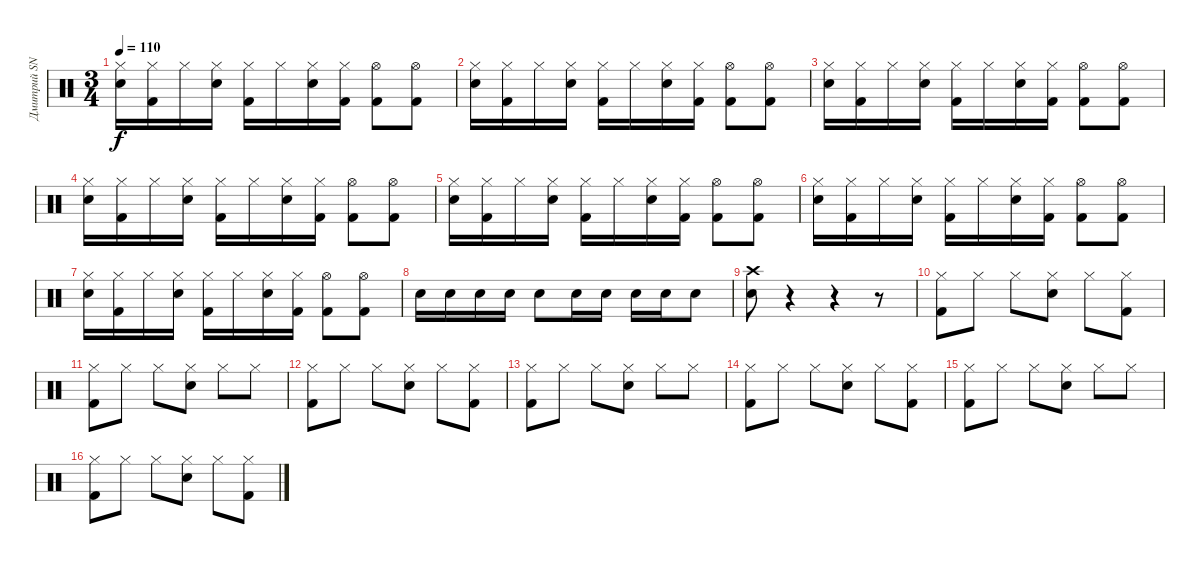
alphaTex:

\track ("Дмитрий SNAKE" "Дмитрий SN") {instrument percussion}
\staff {score}
\articulation defaults
\ts (3 4)
\tempo 110
\clef neutral
\ks c
("Hi-Hat (closed)" "Snare (hit) 2").16{dy f} ("Hi-Hat (closed)" "Kick (hit) 2").16 "Hi-Hat (closed)".16 ("Hi-Hat (closed)" "Snare (hit) 2").16 ("Hi-Hat (closed)" "Kick (hit) 2").16 "Hi-Hat (closed)".16 ("Hi-Hat (closed)" "Snare (hit) 2").16 ("Hi-Hat (closed)" "Kick (hit) 2").16 ("Hi-Hat (open)" "Kick (hit) 2").8 ("Hi-Hat (open)" "Kick (hit) 2").8 |
("Hi-Hat (closed)" "Snare (hit) 2").16 ("Hi-Hat (closed)" "Kick (hit) 2").16 "Hi-Hat (closed)".16 ("Hi-Hat (closed)" "Snare (hit) 2").16 ("Hi-Hat (closed)" "Kick (hit) 2").16 "Hi-Hat (closed)".16 ("Hi-Hat (closed)" "Snare (hit) 2").16 ("Hi-Hat (closed)" "Kick (hit) 2").16 ("Hi-Hat (open)" "Kick (hit) 2").8 ("Hi-Hat (open)" "Kick (hit) 2").8 |
("Hi-Hat (closed)" "Snare (hit) 2").16 ("Hi-Hat (closed)" "Kick (hit) 2").16 "Hi-Hat (closed)".16 ("Hi-Hat (closed)" "Snare (hit) 2").16 ("Hi-Hat (closed)" "Kick (hit) 2").16 "Hi-Hat (closed)".16 ("Hi-Hat (closed)" "Snare (hit) 2").16 ("Hi-Hat (closed)" "Kick (hit) 2").16 ("Hi-Hat (open)" "Kick (hit) 2").8 ("Hi-Hat (open)" "Kick (hit) 2").8 |
("Hi-Hat (closed)" "Snare (hit) 2").16 ("Hi-Hat (closed)" "Kick (hit) 2").16 "Hi-Hat (closed)".16 ("Hi-Hat (closed)" "Snare (hit) 2").16 ("Hi-Hat (closed)" "Kick (hit) 2").16 "Hi-Hat (closed)".16 ("Hi-Hat (closed)" "Snare (hit) 2").16 ("Hi-Hat (closed)" "Kick (hit) 2").16 ("Hi-Hat (open)" "Kick (hit) 2").8 ("Hi-Hat (open)" "Kick (hit) 2").8 |
("Hi-Hat (closed)" "Snare (hit) 2").16 ("Hi-Hat (closed)" "Kick (hit) 2").16 "Hi-Hat (closed)".16 ("Hi-Hat (closed)" "Snare (hit) 2").16 ("Hi-Hat (closed)" "Kick (hit) 2").16 "Hi-Hat (closed)".16 ("Hi-Hat (closed)" "Snare (hit) 2").16 ("Hi-Hat (closed)" "Kick (hit) 2").16 ("Hi-Hat (open)" "Kick (hit) 2").8 ("Hi-Hat (open)" "Kick (hit) 2").8 |
("Hi-Hat (closed)" "Snare (hit) 2").16 ("Hi-Hat (closed)" "Kick (hit) 2").16 "Hi-Hat (closed)".16 ("Hi-Hat (closed)" "Snare (hit) 2").16 ("Hi-Hat (closed)" "Kick (hit) 2").16 "Hi-Hat (closed)".16 ("Hi-Hat (closed)" "Snare (hit) 2").16 ("Hi-Hat (closed)" "Kick (hit) 2").16 ("Hi-Hat (open)" "Kick (hit) 2").8 ("Hi-Hat (open)" "Kick (hit) 2").8 |
("Hi-Hat (closed)" "Snare (hit) 2").16 ("Hi-Hat (closed)" "Kick (hit) 2").16 "Hi-Hat (closed)".16 ("Hi-Hat (closed)" "Snare (hit) 2").16 ("Hi-Hat (closed)" "Kick (hit) 2").16 "Hi-Hat (closed)".16 ("Hi-Hat (closed)" "Snare (hit) 2").16 ("Hi-Hat (closed)" "Kick (hit) 2").16 ("Hi-Hat (open)" "Kick (hit) 2").8 ("Hi-Hat (open)" "Kick (hit) 2").8 |
"Snare (hit) 2".16 "Snare (hit) 2".16 "Snare (hit) 2".16 "Snare (hit) 2".16 "Snare (hit) 2".8 "Snare (hit) 2".16 "Snare (hit) 2".16 "Snare (hit) 2".16 "Snare (hit) 2".16 "Snare (hit) 2".8 |
("Crash high (hit)" "Snare (hit) 2").8 r.4 r.4 r.8 |
("Hi-Hat (closed)" "Kick (hit) 2").8 "Hi-Hat (closed)".8 "Hi-Hat (closed)".8 ("Hi-Hat (closed)" "Snare (hit) 2").8 "Hi-Hat (closed)".8 ("Hi-Hat (closed)" "Kick (hit) 2").8 |
("Hi-Hat (closed)" "Kick (hit) 2").8 "Hi-Hat (closed)".8 "Hi-Hat (closed)".8 ("Hi-Hat (closed)" "Snare (hit) 2").8 "Hi-Hat (closed)".8 "Hi-Hat (closed)".8 |
("Hi-Hat (closed)" "Kick (hit) 2").8 "Hi-Hat (closed)".8 "Hi-Hat (closed)".8 ("Hi-Hat (closed)" "Snare (hit) 2").8 "Hi-Hat (closed)".8 ("Hi-Hat (closed)" "Kick (hit) 2").8 |
("Hi-Hat (closed)" "Kick (hit) 2").8 "Hi-Hat (closed)".8 "Hi-Hat (closed)".8 ("Hi-Hat (closed)" "Snare (hit) 2").8 "Hi-Hat (closed)".8 "Hi-Hat (closed)".8 |
("Hi-Hat (closed)" "Kick (hit) 2").8 "Hi-Hat (closed)".8 "Hi-Hat (closed)".8 ("Hi-Hat (closed)" "Snare (hit) 2").8 "Hi-Hat (closed)".8 ("Hi-Hat (closed)" "Kick (hit) 2").8 |
("Hi-Hat (closed)" "Kick (hit) 2").8 "Hi-Hat (closed)".8 "Hi-Hat (closed)".8 ("Hi-Hat (closed)" "Snare (hit) 2").8 "Hi-Hat (closed)".8 "Hi-Hat (closed)".8 |
("Hi-Hat (closed)" "Kick (hit) 2").8 "Hi-Hat (closed)".8 "Hi-Hat (closed)".8 ("Hi-Hat (closed)" "Snare (hit) 2").8 "Hi-Hat (closed)".8 ("Hi-Hat (closed)" "Kick (hit) 2").8
